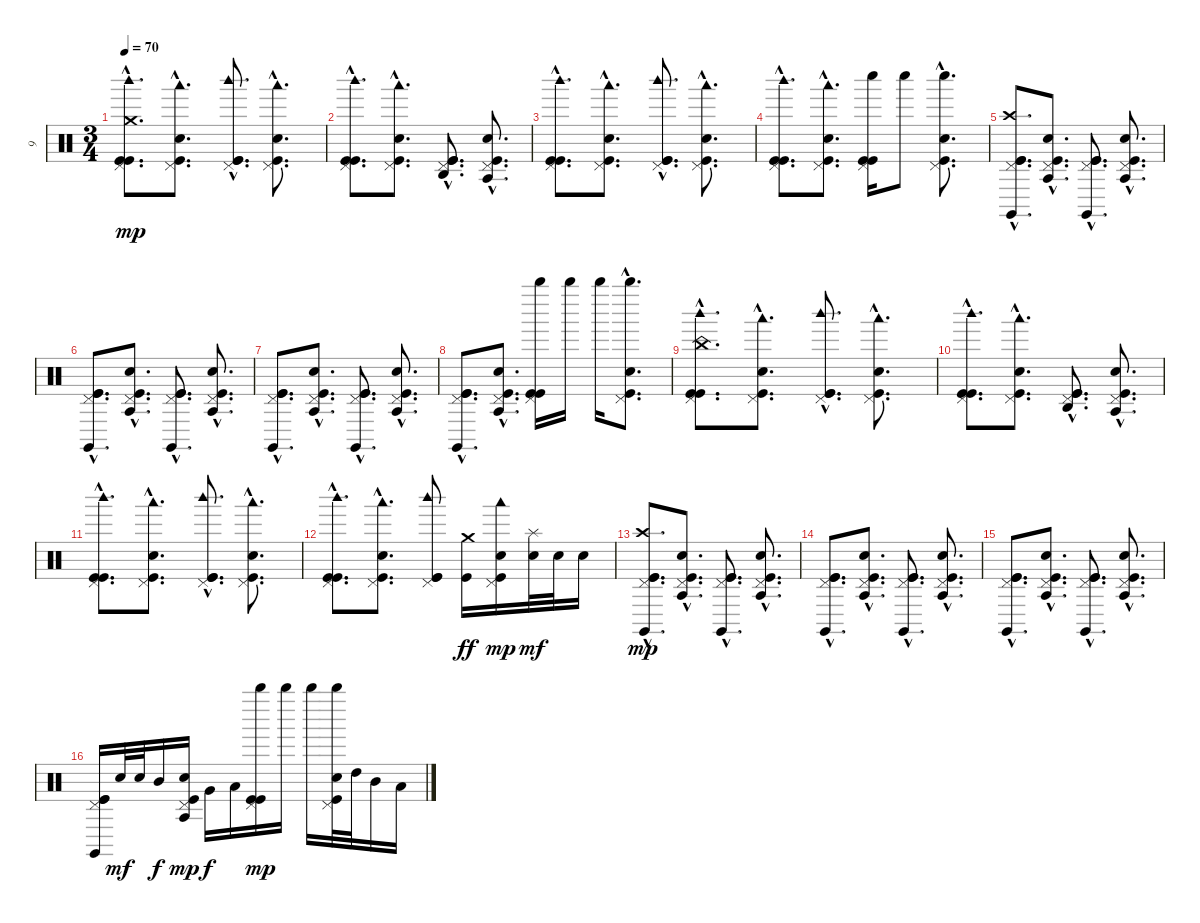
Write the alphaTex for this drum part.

\track ("9" "9") {instrument percussion}
\staff {score}
\articulation defaults
\ts (3 4)
\tempo 70
\clef neutral
\ks c
("Kick (hit)"{hac} "Kick (hit)"{hac} "Woodblock high (hit)"{hac} "Pedal Hi-Hat (hit)"{hac} "Crash medium (hit)"{hac}).8{d dy mp} ("Kick (hit)"{hac} "Snare (hit) 2"{hac} "Woodblock low (hit)"{hac} "Pedal Hi-Hat (hit)"{hac}).8{d} ("Kick (hit)"{hac} "Kick (hit)"{hac} "Woodblock high (hit)"{hac} "Pedal Hi-Hat (hit)"{hac}).8{d} ("Kick (hit)"{hac} "Snare (hit) 2"{hac} "Woodblock low (hit)"{hac} "Pedal Hi-Hat (hit)"{hac}).8{d} |
("Kick (hit)"{hac} "Kick (hit)"{hac} "Woodblock high (hit)"{hac} "Pedal Hi-Hat (hit)"{hac}).8{d} ("Kick (hit)"{hac} "Snare (hit) 2"{hac} "Woodblock low (hit)"{hac} "Pedal Hi-Hat (hit)"{hac}).8{d} ("Kick (hit)"{hac} "Kick (hit)"{hac} "Agogo high (hit)"{hac} "Pedal Hi-Hat (hit)"{hac}).8{d} ("Kick (hit)"{hac} "Snare (hit) 2"{hac} "Agogo tow (hit)"{hac} "Pedal Hi-Hat (hit)"{hac}).8{d} |
("Kick (hit)"{hac} "Kick (hit)"{hac} "Woodblock high (hit)"{hac} "Pedal Hi-Hat (hit)"{hac}).8{d} ("Kick (hit)"{hac} "Snare (hit) 2"{hac} "Woodblock low (hit)"{hac} "Pedal Hi-Hat (hit)"{hac}).8{d} ("Kick (hit)"{hac} "Kick (hit)"{hac} "Woodblock high (hit)"{hac} "Pedal Hi-Hat (hit)"{hac}).8{d} ("Kick (hit)"{hac} "Snare (hit) 2"{hac} "Woodblock low (hit)"{hac} "Pedal Hi-Hat (hit)"{hac}).8{d} |
("Kick (hit)"{hac} "Kick (hit)"{hac} "Woodblock high (hit)"{hac} "Pedal Hi-Hat (hit)"{hac}).8{d} ("Kick (hit)"{hac} "Snare (hit) 2"{hac} "Woodblock low (hit)"{hac} "Pedal Hi-Hat (hit)"{hac}).8{d} ("Kick (hit)" "Kick (hit)" "Whistle low (hit)" "Pedal Hi-Hat (hit)").16 "Whistle low (hit)".8 ("Kick (hit)"{hac} "Snare (hit) 2"{hac} "Whistle low (hit)"{hac} "Pedal Hi-Hat (hit)"{hac}).8{d} |
("Kick (hit)"{hac} "Kick (hit)"{hac} "Claves (hit)"{hac} "Pedal Hi-Hat (hit)"{hac} "Crash high (hit)"{hac}).8{d} ("Kick (hit)"{hac} "Snare (hit) 2"{hac} "Agogo tow (hit)"{hac} "Pedal Hi-Hat (hit)"{hac}).8{d} ("Kick (hit)"{hac} "Kick (hit)"{hac} "Claves (hit)"{hac} "Pedal Hi-Hat (hit)"{hac}).8{d} ("Kick (hit)"{hac} "Snare (hit) 2"{hac} "Agogo tow (hit)"{hac} "Pedal Hi-Hat (hit)"{hac}).8{d} |
("Kick (hit)"{hac} "Kick (hit)"{hac} "Claves (hit)"{hac} "Pedal Hi-Hat (hit)"{hac}).8{d} ("Kick (hit)"{hac} "Snare (hit) 2"{hac} "Agogo tow (hit)"{hac} "Pedal Hi-Hat (hit)"{hac}).8{d} ("Kick (hit)"{hac} "Kick (hit)"{hac} "Claves (hit)"{hac} "Pedal Hi-Hat (hit)"{hac}).8{d} ("Kick (hit)"{hac} "Snare (hit) 2"{hac} "Agogo tow (hit)"{hac} "Pedal Hi-Hat (hit)"{hac}).8{d} |
("Kick (hit)"{hac} "Kick (hit)"{hac} "Claves (hit)"{hac} "Pedal Hi-Hat (hit)"{hac}).8{d} ("Kick (hit)"{hac} "Snare (hit) 2"{hac} "Agogo tow (hit)"{hac} "Pedal Hi-Hat (hit)"{hac}).8{d} ("Kick (hit)"{hac} "Kick (hit)"{hac} "Claves (hit)"{hac} "Pedal Hi-Hat (hit)"{hac}).8{d} ("Kick (hit)"{hac} "Snare (hit) 2"{hac} "Agogo tow (hit)"{hac} "Pedal Hi-Hat (hit)"{hac}).8{d} |
("Kick (hit)"{hac} "Kick (hit)"{hac} "Claves (hit)"{hac} "Pedal Hi-Hat (hit)"{hac}).8{d} ("Kick (hit)"{hac} "Snare (hit) 2"{hac} "Agogo tow (hit)"{hac} "Pedal Hi-Hat (hit)"{hac}).8{d} ("Kick (hit)" "Kick (hit)" "Whistle high (hit)" "Pedal Hi-Hat (hit)").16 "Whistle high (hit)".16 "Whistle high (hit)".16 ("Kick (hit)"{hac} "Snare (hit) 2"{hac} "Whistle high (hit)"{hac} "Pedal Hi-Hat (hit)"{hac}).8{d} |
("Kick (hit)"{hac} "Kick (hit)"{hac} "Woodblock high (hit)"{hac} "Pedal Hi-Hat (hit)"{hac} "China (hit)"{hac}).8{d} ("Kick (hit)"{hac} "Snare (hit) 2"{hac} "Woodblock low (hit)"{hac} "Pedal Hi-Hat (hit)"{hac}).8{d} ("Kick (hit)"{hac} "Kick (hit)"{hac} "Woodblock high (hit)"{hac} "Pedal Hi-Hat (hit)"{hac}).8{d} ("Kick (hit)"{hac} "Snare (hit) 2"{hac} "Woodblock low (hit)"{hac} "Pedal Hi-Hat (hit)"{hac}).8{d} |
("Kick (hit)"{hac} "Kick (hit)"{hac} "Woodblock high (hit)"{hac} "Pedal Hi-Hat (hit)"{hac}).8{d} ("Kick (hit)"{hac} "Snare (hit) 2"{hac} "Woodblock low (hit)"{hac} "Pedal Hi-Hat (hit)"{hac}).8{d} ("Kick (hit)"{hac} "Kick (hit)"{hac} "Agogo high (hit)"{hac} "Pedal Hi-Hat (hit)"{hac}).8{d} ("Kick (hit)"{hac} "Snare (hit) 2"{hac} "Agogo tow (hit)"{hac} "Pedal Hi-Hat (hit)"{hac}).8{d} |
("Kick (hit)"{hac} "Kick (hit)"{hac} "Woodblock high (hit)"{hac} "Pedal Hi-Hat (hit)"{hac}).8{d} ("Kick (hit)"{hac} "Snare (hit) 2"{hac} "Woodblock low (hit)"{hac} "Pedal Hi-Hat (hit)"{hac}).8{d} ("Kick (hit)"{hac} "Kick (hit)"{hac} "Woodblock high (hit)"{hac} "Pedal Hi-Hat (hit)"{hac}).8{d} ("Kick (hit)"{hac} "Snare (hit) 2"{hac} "Woodblock low (hit)"{hac} "Pedal Hi-Hat (hit)"{hac}).8{d} |
("Kick (hit)"{hac} "Kick (hit)"{hac} "Woodblock high (hit)"{hac} "Pedal Hi-Hat (hit)"{hac}).8{d} ("Kick (hit)"{hac} "Snare (hit) 2"{hac} "Woodblock low (hit)"{hac} "Pedal Hi-Hat (hit)"{hac}).8{d} ("Kick (hit)" "Kick (hit)" "Woodblock high (hit)" "Pedal Hi-Hat (hit)").8 ("Kick (hit)" "Crash medium (hit)").16{dy ff} ("Kick (hit)" "Snare (hit) 2" "Woodblock low (hit)" "Pedal Hi-Hat (hit)").16{dy mp} ("Snare (hit) 2" "Splash (hit)").32{dy mf} "Snare (hit) 2".32 "Snare (hit) 2".16 |
("Kick (hit)"{hac} "Kick (hit)"{hac} "Claves (hit)"{hac} "Pedal Hi-Hat (hit)"{hac} "Crash high (hit)"{hac}).8{d dy mp} ("Kick (hit)"{hac} "Snare (hit) 2"{hac} "Agogo tow (hit)"{hac} "Pedal Hi-Hat (hit)"{hac}).8{d} ("Kick (hit)"{hac} "Kick (hit)"{hac} "Claves (hit)"{hac} "Pedal Hi-Hat (hit)"{hac}).8{d} ("Kick (hit)"{hac} "Snare (hit) 2"{hac} "Agogo tow (hit)"{hac} "Pedal Hi-Hat (hit)"{hac}).8{d} |
("Kick (hit)"{hac} "Kick (hit)"{hac} "Claves (hit)"{hac} "Pedal Hi-Hat (hit)"{hac}).8{d} ("Kick (hit)"{hac} "Snare (hit) 2"{hac} "Agogo tow (hit)"{hac} "Pedal Hi-Hat (hit)"{hac}).8{d} ("Kick (hit)"{hac} "Kick (hit)"{hac} "Claves (hit)"{hac} "Pedal Hi-Hat (hit)"{hac}).8{d} ("Kick (hit)"{hac} "Snare (hit) 2"{hac} "Agogo tow (hit)"{hac} "Pedal Hi-Hat (hit)"{hac}).8{d} |
("Kick (hit)"{hac} "Kick (hit)"{hac} "Claves (hit)"{hac} "Pedal Hi-Hat (hit)"{hac}).8{d} ("Kick (hit)"{hac} "Snare (hit) 2"{hac} "Agogo tow (hit)"{hac} "Pedal Hi-Hat (hit)"{hac}).8{d} ("Kick (hit)"{hac} "Kick (hit)"{hac} "Claves (hit)"{hac} "Pedal Hi-Hat (hit)"{hac}).8{d} ("Kick (hit)"{hac} "Snare (hit) 2"{hac} "Agogo tow (hit)"{hac} "Pedal Hi-Hat (hit)"{hac}).8{d} |
("Kick (hit)" "Kick (hit)" "Claves (hit)" "Pedal Hi-Hat (hit)").16 "Snare (hit) 2".32{dy mf} "Snare (hit) 2".32 "Mid Tom (hit)".16{dy f} ("Kick (hit)" "Snare (hit) 2" "Agogo tow (hit)" "Pedal Hi-Hat (hit)").16{dy mp} "Very Low Tom (hit)".16{dy f} "Low Floor Tom (hit)".16 ("Kick (hit)" "Kick (hit)" "Whistle high (hit)" "Pedal Hi-Hat (hit)").16{dy mp} "Whistle high (hit)".16 "Whistle high (hit)".16 ("Kick (hit)" "Snare (hit) 2" "Whistle high (hit)" "Pedal Hi-Hat (hit)").32 "High Tom (hit)".32 "Mid Tom (hit)".16 "Low Tom (hit)".16
